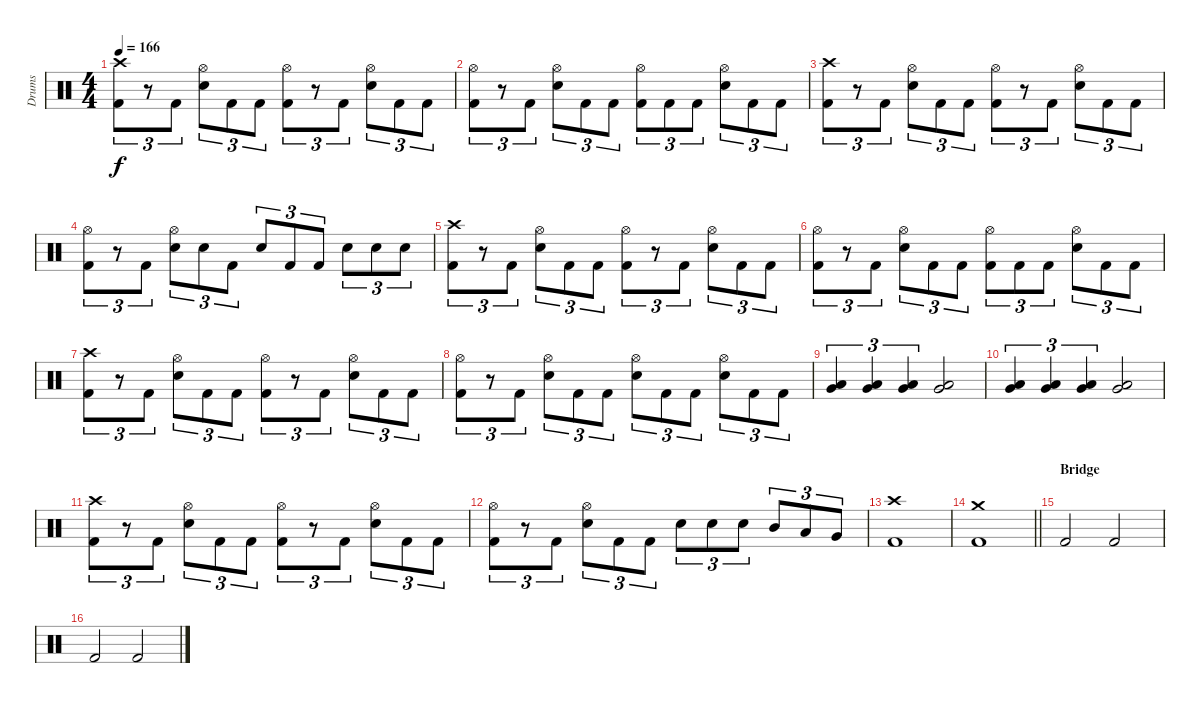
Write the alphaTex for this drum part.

\track ("Drums" "Drums") {instrument percussion}
\staff {score}
\articulation defaults
\ts (4 4)
\tempo 166
\clef neutral
\ks c
("Crash high (hit)" "Kick (hit) 2").8{tu (3 2) dy f} r.8{tu (3 2)} "Kick (hit) 2".8{tu (3 2)} ("Hi-Hat (open)" "Snare (hit) 2").8{tu (3 2)} "Kick (hit) 2".8{tu (3 2)} "Kick (hit) 2".8{tu (3 2)} ("Hi-Hat (open)" "Kick (hit) 2").8{tu (3 2)} r.8{tu (3 2)} "Kick (hit) 2".8{tu (3 2)} ("Hi-Hat (open)" "Snare (hit) 2").8{tu (3 2)} "Kick (hit) 2".8{tu (3 2)} "Kick (hit) 2".8{tu (3 2)} |
("Hi-Hat (open)" "Kick (hit) 2").8{tu (3 2)} r.8{tu (3 2)} "Kick (hit) 2".8{tu (3 2)} ("Hi-Hat (open)" "Snare (hit) 2").8{tu (3 2)} "Kick (hit) 2".8{tu (3 2)} "Kick (hit) 2".8{tu (3 2)} ("Hi-Hat (open)" "Kick (hit) 2").8{tu (3 2)} "Kick (hit) 2".8{tu (3 2)} "Kick (hit) 2".8{tu (3 2)} ("Hi-Hat (open)" "Snare (hit) 2").8{tu (3 2)} "Kick (hit) 2".8{tu (3 2)} "Kick (hit) 2".8{tu (3 2)} |
("Crash high (hit)" "Kick (hit) 2").8{tu (3 2)} r.8{tu (3 2)} "Kick (hit) 2".8{tu (3 2)} ("Hi-Hat (open)" "Snare (hit) 2").8{tu (3 2)} "Kick (hit) 2".8{tu (3 2)} "Kick (hit) 2".8{tu (3 2)} ("Hi-Hat (open)" "Kick (hit) 2").8{tu (3 2)} r.8{tu (3 2)} "Kick (hit) 2".8{tu (3 2)} ("Hi-Hat (open)" "Snare (hit) 2").8{tu (3 2)} "Kick (hit) 2".8{tu (3 2)} "Kick (hit) 2".8{tu (3 2)} |
("Hi-Hat (open)" "Kick (hit) 2").8{tu (3 2)} r.8{tu (3 2)} "Kick (hit) 2".8{tu (3 2)} ("Hi-Hat (open)" "Snare (hit) 2").8{tu (3 2)} "Snare (hit) 2".8{tu (3 2)} "Kick (hit) 2".8{tu (3 2)} "Snare (hit) 2".8{tu (3 2)} "Kick (hit) 2".8{tu (3 2)} "Kick (hit) 2".8{tu (3 2)} "Snare (hit) 2".8{tu (3 2)} "Snare (hit) 2".8{tu (3 2)} "Snare (hit) 2".8{tu (3 2)} |
("Crash high (hit)" "Kick (hit) 2").8{tu (3 2)} r.8{tu (3 2)} "Kick (hit) 2".8{tu (3 2)} ("Hi-Hat (open)" "Snare (hit) 2").8{tu (3 2)} "Kick (hit) 2".8{tu (3 2)} "Kick (hit) 2".8{tu (3 2)} ("Hi-Hat (open)" "Kick (hit) 2").8{tu (3 2)} r.8{tu (3 2)} "Kick (hit) 2".8{tu (3 2)} ("Hi-Hat (open)" "Snare (hit) 2").8{tu (3 2)} "Kick (hit) 2".8{tu (3 2)} "Kick (hit) 2".8{tu (3 2)} |
("Hi-Hat (open)" "Kick (hit) 2").8{tu (3 2)} r.8{tu (3 2)} "Kick (hit) 2".8{tu (3 2)} ("Hi-Hat (open)" "Snare (hit) 2").8{tu (3 2)} "Kick (hit) 2".8{tu (3 2)} "Kick (hit) 2".8{tu (3 2)} ("Hi-Hat (open)" "Kick (hit) 2").8{tu (3 2)} "Kick (hit) 2".8{tu (3 2)} "Kick (hit) 2".8{tu (3 2)} ("Hi-Hat (open)" "Snare (hit) 2").8{tu (3 2)} "Kick (hit) 2".8{tu (3 2)} "Kick (hit) 2".8{tu (3 2)} |
("Crash high (hit)" "Kick (hit) 2").8{tu (3 2)} r.8{tu (3 2)} "Kick (hit) 2".8{tu (3 2)} ("Hi-Hat (open)" "Snare (hit) 2").8{tu (3 2)} "Kick (hit) 2".8{tu (3 2)} "Kick (hit) 2".8{tu (3 2)} ("Hi-Hat (open)" "Kick (hit) 2").8{tu (3 2)} r.8{tu (3 2)} "Kick (hit) 2".8{tu (3 2)} ("Hi-Hat (open)" "Snare (hit) 2").8{tu (3 2)} "Kick (hit) 2".8{tu (3 2)} "Kick (hit) 2".8{tu (3 2)} |
("Hi-Hat (open)" "Kick (hit) 2").8{tu (3 2)} r.8{tu (3 2)} "Kick (hit) 2".8{tu (3 2)} ("Hi-Hat (open)" "Snare (hit) 2").8{tu (3 2)} "Kick (hit) 2".8{tu (3 2)} "Kick (hit) 2".8{tu (3 2)} ("Hi-Hat (open)" "Snare (hit) 2").8{tu (3 2)} "Kick (hit) 2".8{tu (3 2)} "Kick (hit) 2".8{tu (3 2)} ("Hi-Hat (open)" "Snare (hit) 2").8{tu (3 2)} "Kick (hit) 2".8{tu (3 2)} "Kick (hit) 2".8{tu (3 2)} |
("Very Low Tom (hit)" "Low Floor Tom (hit)").4{tu (3 2)} ("Very Low Tom (hit)" "Low Floor Tom (hit)").4{tu (3 2)} ("Very Low Tom (hit)" "Low Floor Tom (hit)").4{tu (3 2)} ("Very Low Tom (hit)" "Low Floor Tom (hit)").2 |
("Very Low Tom (hit)" "Low Floor Tom (hit)").4{tu (3 2)} ("Very Low Tom (hit)" "Low Floor Tom (hit)").4{tu (3 2)} ("Very Low Tom (hit)" "Low Floor Tom (hit)").4{tu (3 2)} ("Very Low Tom (hit)" "Low Floor Tom (hit)").2 |
("Crash high (hit)" "Kick (hit) 2").8{tu (3 2)} r.8{tu (3 2)} "Kick (hit) 2".8{tu (3 2)} ("Hi-Hat (open)" "Snare (hit) 2").8{tu (3 2)} "Kick (hit) 2".8{tu (3 2)} "Kick (hit) 2".8{tu (3 2)} ("Hi-Hat (open)" "Kick (hit) 2").8{tu (3 2)} r.8{tu (3 2)} "Kick (hit) 2".8{tu (3 2)} ("Hi-Hat (open)" "Snare (hit) 2").8{tu (3 2)} "Kick (hit) 2".8{tu (3 2)} "Kick (hit) 2".8{tu (3 2)} |
("Hi-Hat (open)" "Kick (hit) 2").8{tu (3 2)} r.8{tu (3 2)} "Kick (hit) 2".8{tu (3 2)} ("Hi-Hat (open)" "Snare (hit) 2").8{tu (3 2)} "Kick (hit) 2".8{tu (3 2)} "Kick (hit) 2".8{tu (3 2)} "Snare (hit) 2".8{tu (3 2)} "Snare (hit) 2".8{tu (3 2)} "Snare (hit) 2".8{tu (3 2)} "Mid Tom (hit)".8{tu (3 2)} "Low Tom (hit)".8{tu (3 2)} "Very Low Tom (hit)".8{tu (3 2)} |
("Crash high (hit)" "Kick (hit) 2").1 |
\barLineRight lightlight
("Crash medium (hit)" "Kick (hit) 2").1 |
\section ("" "Bridge")
"Kick (hit) 2".2 "Kick (hit) 2".2 |
"Kick (hit) 2".2 "Kick (hit) 2".2
